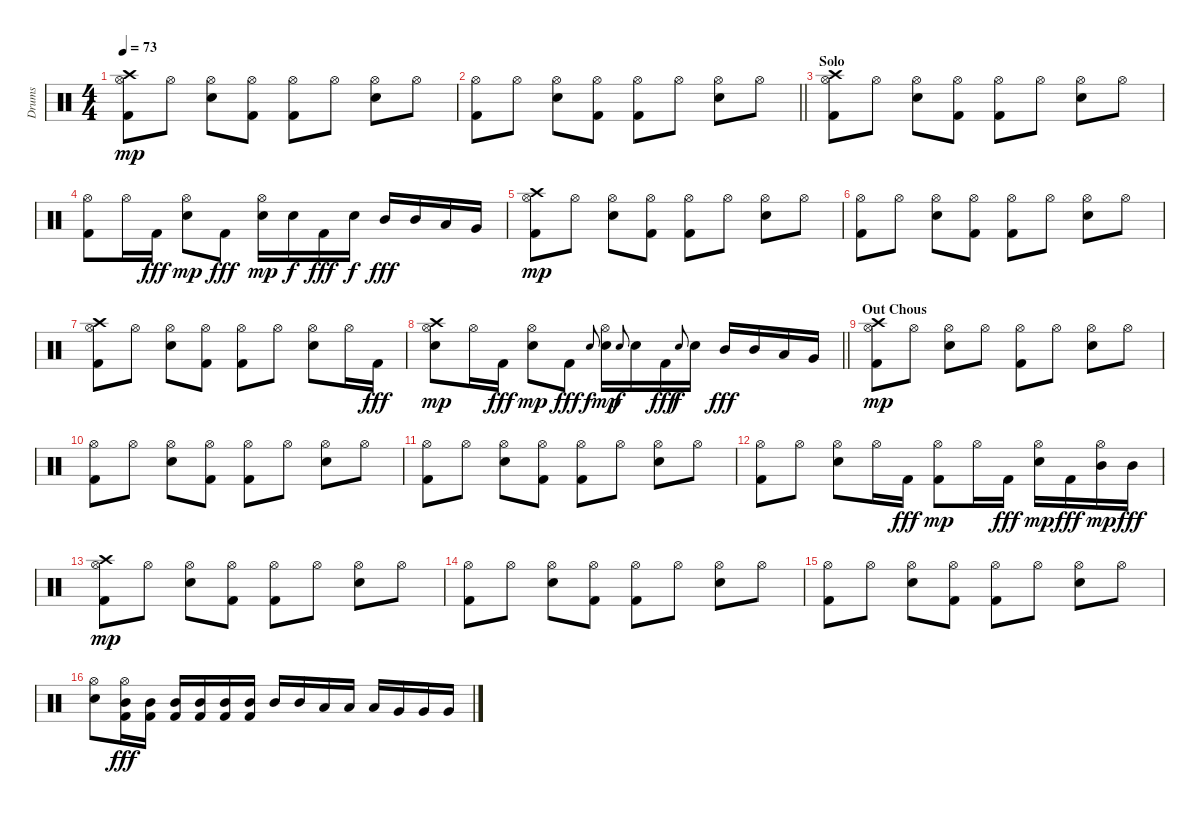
\track ("Drums" "Drums") {instrument percussion}
\staff {score}
\articulation defaults
\ts (4 4)
\tempo 73
\clef neutral
\ks c
("Kick (hit) 2" "Hi-Hat (open)" "Crash high (hit)").8{dy mp} "Hi-Hat (open)".8 ("Electric Snare (hit)" "Hi-Hat (open)").8 ("Kick (hit) 2" "Hi-Hat (open)").8 ("Kick (hit) 2" "Hi-Hat (open)").8 "Hi-Hat (open)".8 ("Electric Snare (hit)" "Hi-Hat (open)").8 "Hi-Hat (open)".8 |
\barLineRight lightlight
("Kick (hit) 2" "Hi-Hat (open)").8 "Hi-Hat (open)".8 ("Electric Snare (hit)" "Hi-Hat (open)").8 ("Kick (hit) 2" "Hi-Hat (open)").8 ("Kick (hit) 2" "Hi-Hat (open)").8 "Hi-Hat (open)".8 ("Electric Snare (hit)" "Hi-Hat (open)").8 "Hi-Hat (open)".8 |
\section ("" "Solo")
("Kick (hit) 2" "Hi-Hat (open)" "Crash high (hit)").8 "Hi-Hat (open)".8 ("Electric Snare (hit)" "Hi-Hat (open)").8 ("Kick (hit) 2" "Hi-Hat (open)").8 ("Kick (hit) 2" "Hi-Hat (open)").8 "Hi-Hat (open)".8 ("Electric Snare (hit)" "Hi-Hat (open)").8 "Hi-Hat (open)".8 |
("Kick (hit) 2" "Hi-Hat (open)").8 "Hi-Hat (open)".16 "Kick (hit) 2".16{dy fff} ("Electric Snare (hit)" "Hi-Hat (open)").8{dy mp} "Kick (hit) 2".8{dy fff} ("Electric Snare (hit)" "Hi-Hat (open)").16{dy mp} "Electric Snare (hit)".16{dy f} "Kick (hit) 2".16{dy fff} "Electric Snare (hit)".16{dy f} "Mid Tom (hit)".16{dy fff} "Mid Tom (hit)".16 "Low Tom (hit)".16 "Very Low Tom (hit)".16 |
("Kick (hit) 2" "Hi-Hat (open)" "Crash high (hit)").8{dy mp} "Hi-Hat (open)".8 ("Electric Snare (hit)" "Hi-Hat (open)").8 ("Kick (hit) 2" "Hi-Hat (open)").8 ("Kick (hit) 2" "Hi-Hat (open)").8 "Hi-Hat (open)".8 ("Electric Snare (hit)" "Hi-Hat (open)").8 "Hi-Hat (open)".8 |
("Kick (hit) 2" "Hi-Hat (open)").8 "Hi-Hat (open)".8 ("Electric Snare (hit)" "Hi-Hat (open)").8 ("Kick (hit) 2" "Hi-Hat (open)").8 ("Kick (hit) 2" "Hi-Hat (open)").8 "Hi-Hat (open)".8 ("Electric Snare (hit)" "Hi-Hat (open)").8 "Hi-Hat (open)".8 |
("Kick (hit) 2" "Hi-Hat (open)" "Crash high (hit)").8 "Hi-Hat (open)".8 ("Electric Snare (hit)" "Hi-Hat (open)").8 ("Kick (hit) 2" "Hi-Hat (open)").8 ("Kick (hit) 2" "Hi-Hat (open)").8 "Hi-Hat (open)".8 ("Electric Snare (hit)" "Hi-Hat (open)").8 "Hi-Hat (open)".16 "Kick (hit) 2".16{dy fff} |
\barLineRight lightlight
("Electric Snare (hit)" "Crash high (hit)" "Hi-Hat (open)").8{dy mp} "Hi-Hat (open)".16 "Kick (hit) 2".16{dy fff} ("Electric Snare (hit)" "Hi-Hat (open)").8{dy mp} "Kick (hit) 2".8{dy fff} "Electric Snare (hit)".8{gr onbeat dy f} ("Electric Snare (hit)" "Hi-Hat (open)").16{dy mp} "Electric Snare (hit)".8{gr onbeat dy f} "Electric Snare (hit)".16 "Kick (hit) 2".16{dy fff} "Electric Snare (hit)".8{gr onbeat dy f} "Electric Snare (hit)".16 "Mid Tom (hit)".16{dy fff} "Mid Tom (hit)".16 "Low Tom (hit)".16 "Very Low Tom (hit)".16 |
\section ("" "Out Chous")
("Kick (hit) 2" "Hi-Hat (open)" "Crash high (hit)").8{dy mp} "Hi-Hat (open)".8 ("Electric Snare (hit)" "Hi-Hat (open)").8 "Hi-Hat (open)".8 ("Kick (hit) 2" "Hi-Hat (open)").8 "Hi-Hat (open)".8 ("Electric Snare (hit)" "Hi-Hat (open)").8 "Hi-Hat (open)".8 |
("Kick (hit) 2" "Hi-Hat (open)").8 "Hi-Hat (open)".8 ("Electric Snare (hit)" "Hi-Hat (open)").8 ("Kick (hit) 2" "Hi-Hat (open)").8 ("Kick (hit) 2" "Hi-Hat (open)").8 "Hi-Hat (open)".8 ("Electric Snare (hit)" "Hi-Hat (open)").8 "Hi-Hat (open)".8 |
("Kick (hit) 2" "Hi-Hat (open)").8 "Hi-Hat (open)".8 ("Electric Snare (hit)" "Hi-Hat (open)").8 ("Kick (hit) 2" "Hi-Hat (open)").8 ("Kick (hit) 2" "Hi-Hat (open)").8 "Hi-Hat (open)".8 ("Electric Snare (hit)" "Hi-Hat (open)").8 "Hi-Hat (open)".8 |
("Kick (hit) 2" "Hi-Hat (open)").8 "Hi-Hat (open)".8 ("Electric Snare (hit)" "Hi-Hat (open)").8 "Hi-Hat (open)".16 "Kick (hit) 2".16{dy fff} ("Kick (hit) 2" "Hi-Hat (open)").8{dy mp} "Hi-Hat (open)".16 "Kick (hit) 2".16{dy fff} ("Electric Snare (hit)" "Hi-Hat (open)").16{dy mp} "Kick (hit) 2".16{dy fff} ("Mid Tom (hit)" "Hi-Hat (open)").16{dy mp} "Mid Tom (hit)".16{dy fff} |
("Kick (hit) 2" "Crash high (hit)" "Hi-Hat (open)").8{dy mp} "Hi-Hat (open)".8 ("Electric Snare (hit)" "Hi-Hat (open)").8 ("Kick (hit) 2" "Hi-Hat (open)").8 ("Kick (hit) 2" "Hi-Hat (open)").8 "Hi-Hat (open)".8 ("Electric Snare (hit)" "Hi-Hat (open)").8 "Hi-Hat (open)".8 |
("Kick (hit) 2" "Hi-Hat (open)").8 "Hi-Hat (open)".8 ("Electric Snare (hit)" "Hi-Hat (open)").8 ("Kick (hit) 2" "Hi-Hat (open)").8 ("Kick (hit) 2" "Hi-Hat (open)").8 "Hi-Hat (open)".8 ("Electric Snare (hit)" "Hi-Hat (open)").8 "Hi-Hat (open)".8 |
("Kick (hit) 2" "Hi-Hat (open)").8 "Hi-Hat (open)".8 ("Electric Snare (hit)" "Hi-Hat (open)").8 ("Kick (hit) 2" "Hi-Hat (open)").8 ("Kick (hit) 2" "Hi-Hat (open)").8 "Hi-Hat (open)".8 ("Electric Snare (hit)" "Hi-Hat (open)").8 "Hi-Hat (open)".8 |
("Electric Snare (hit)" "Hi-Hat (open)").8 ("Kick (hit) 2" "Mid Tom (hit)" "Hi-Hat (open)").16{dy fff} ("Kick (hit) 2" "Mid Tom (hit)").16 ("Kick (hit) 2" "Mid Tom (hit)").16 ("Kick (hit) 2" "Mid Tom (hit)").16 ("Kick (hit) 2" "Mid Tom (hit)").16 ("Kick (hit) 2" "Mid Tom (hit)").16 "Mid Tom (hit)".16 "Mid Tom (hit)".16 "Low Tom (hit)".16 "Low Tom (hit)".16 "Low Tom (hit)".16 "Very Low Tom (hit)".16 "Very Low Tom (hit)".16 "Very Low Tom (hit)".16
